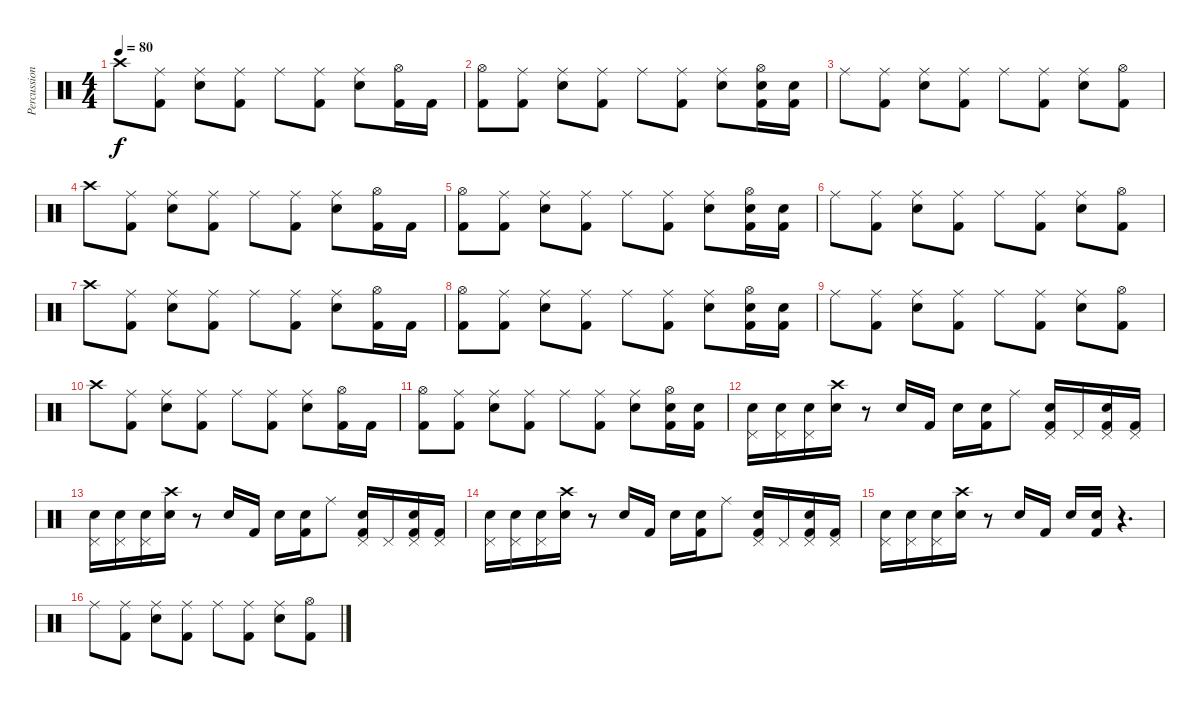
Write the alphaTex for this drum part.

\track ("Percussion" "Percussion") {instrument percussion}
\staff {score}
\articulation defaults
\ts (4 4)
\tempo 80
\clef neutral
\ks c "Crash high (hit)".8{dy f}
("Ride (middle)" "Kick (hit) 2").8 ("Ride (middle)" "Electric Snare (hit)").8 ("Ride (middle)" "Kick (hit) 2").8 "Ride (middle)".8 ("Ride (middle)" "Kick (hit) 2").8 ("Ride (middle)" "Electric Snare (hit)").8 ("Hi-Hat (open)" "Kick (hit) 2").16 "Kick (hit) 2".16 |
("Hi-Hat (open)" "Kick (hit) 2").8 ("Ride (middle)" "Kick (hit) 2").8 ("Ride (middle)" "Electric Snare (hit)").8 ("Ride (middle)" "Kick (hit) 2").8 "Ride (middle)".8 ("Ride (middle)" "Kick (hit) 2").8 ("Ride (middle)" "Electric Snare (hit)").8 ("Hi-Hat (open)" "Electric Snare (hit)" "Kick (hit) 2").16 ("Electric Snare (hit)" "Kick (hit) 2").16 |
"Ride (middle)".8 ("Ride (middle)" "Kick (hit) 2").8 ("Ride (middle)" "Electric Snare (hit)").8 ("Ride (middle)" "Kick (hit) 2").8 "Ride (middle)".8 ("Ride (middle)" "Kick (hit) 2").8 ("Ride (middle)" "Electric Snare (hit)").8 ("Hi-Hat (open)" "Kick (hit) 2").8 |
"Crash high (hit)".8 ("Ride (middle)" "Kick (hit) 2").8 ("Ride (middle)" "Electric Snare (hit)").8 ("Ride (middle)" "Kick (hit) 2").8 "Ride (middle)".8 ("Ride (middle)" "Kick (hit) 2").8 ("Ride (middle)" "Electric Snare (hit)").8 ("Hi-Hat (open)" "Kick (hit) 2").16 "Kick (hit) 2".16 |
("Hi-Hat (open)" "Kick (hit) 2").8 ("Ride (middle)" "Kick (hit) 2").8 ("Ride (middle)" "Electric Snare (hit)").8 ("Ride (middle)" "Kick (hit) 2").8 "Ride (middle)".8 ("Ride (middle)" "Kick (hit) 2").8 ("Ride (middle)" "Electric Snare (hit)").8 ("Hi-Hat (open)" "Electric Snare (hit)" "Kick (hit) 2").16 ("Electric Snare (hit)" "Kick (hit) 2").16 |
"Ride (middle)".8 ("Ride (middle)" "Kick (hit) 2").8 ("Ride (middle)" "Electric Snare (hit)").8 ("Ride (middle)" "Kick (hit) 2").8 "Ride (middle)".8 ("Ride (middle)" "Kick (hit) 2").8 ("Ride (middle)" "Electric Snare (hit)").8 ("Hi-Hat (open)" "Kick (hit) 2").8 |
"Crash high (hit)".8 ("Ride (middle)" "Kick (hit) 2").8 ("Ride (middle)" "Electric Snare (hit)").8 ("Ride (middle)" "Kick (hit) 2").8 "Ride (middle)".8 ("Ride (middle)" "Kick (hit) 2").8 ("Ride (middle)" "Electric Snare (hit)").8 ("Hi-Hat (open)" "Kick (hit) 2").16 "Kick (hit) 2".16 |
("Hi-Hat (open)" "Kick (hit) 2").8 ("Ride (middle)" "Kick (hit) 2").8 ("Ride (middle)" "Electric Snare (hit)").8 ("Ride (middle)" "Kick (hit) 2").8 "Ride (middle)".8 ("Ride (middle)" "Kick (hit) 2").8 ("Ride (middle)" "Electric Snare (hit)").8 ("Hi-Hat (open)" "Electric Snare (hit)" "Kick (hit) 2").16 ("Electric Snare (hit)" "Kick (hit) 2").16 |
"Ride (middle)".8 ("Ride (middle)" "Kick (hit) 2").8 ("Ride (middle)" "Electric Snare (hit)").8 ("Ride (middle)" "Kick (hit) 2").8 "Ride (middle)".8 ("Ride (middle)" "Kick (hit) 2").8 ("Ride (middle)" "Electric Snare (hit)").8 ("Hi-Hat (open)" "Kick (hit) 2").8 |
"Crash high (hit)".8 ("Ride (middle)" "Kick (hit) 2").8 ("Ride (middle)" "Electric Snare (hit)").8 ("Ride (middle)" "Kick (hit) 2").8 "Ride (middle)".8 ("Ride (middle)" "Kick (hit) 2").8 ("Ride (middle)" "Electric Snare (hit)").8 ("Hi-Hat (open)" "Kick (hit) 2").16 "Kick (hit) 2".16 |
("Hi-Hat (open)" "Kick (hit) 2").8 ("Ride (middle)" "Kick (hit) 2").8 ("Ride (middle)" "Electric Snare (hit)").8 ("Ride (middle)" "Kick (hit) 2").8 "Ride (middle)".8 ("Ride (middle)" "Kick (hit) 2").8 ("Ride (middle)" "Electric Snare (hit)").8 ("Hi-Hat (open)" "Electric Snare (hit)" "Kick (hit) 2").16 ("Electric Snare (hit)" "Kick (hit) 2").16 |
("Pedal Hi-Hat (hit)" "Electric Snare (hit)").16 ("Pedal Hi-Hat (hit)" "Electric Snare (hit)").16 ("Pedal Hi-Hat (hit)" "Electric Snare (hit)").16 ("Crash high (hit)" "Electric Snare (hit)").16 r.8 "Electric Snare (hit)".16 "Kick (hit) 2".16 "Electric Snare (hit)".16 ("Electric Snare (hit)" "Kick (hit) 2").16 "Ride (middle)".8 ("Pedal Hi-Hat (hit)" "Electric Snare (hit)" "Kick (hit) 2").16 "Pedal Hi-Hat (hit)".16 ("Pedal Hi-Hat (hit)" "Electric Snare (hit)" "Kick (hit) 2").16 ("Pedal Hi-Hat (hit)" "Kick (hit) 2").16 |
("Pedal Hi-Hat (hit)" "Electric Snare (hit)").16 ("Pedal Hi-Hat (hit)" "Electric Snare (hit)").16 ("Pedal Hi-Hat (hit)" "Electric Snare (hit)").16 ("Crash high (hit)" "Electric Snare (hit)").16 r.8 "Electric Snare (hit)".16 "Kick (hit) 2".16 "Electric Snare (hit)".16 ("Electric Snare (hit)" "Kick (hit) 2").16 "Ride (middle)".8 ("Pedal Hi-Hat (hit)" "Electric Snare (hit)" "Kick (hit) 2").16 "Pedal Hi-Hat (hit)".16 ("Pedal Hi-Hat (hit)" "Electric Snare (hit)" "Kick (hit) 2").16 ("Pedal Hi-Hat (hit)" "Kick (hit) 2").16 |
("Pedal Hi-Hat (hit)" "Electric Snare (hit)").16 ("Pedal Hi-Hat (hit)" "Electric Snare (hit)").16 ("Pedal Hi-Hat (hit)" "Electric Snare (hit)").16 ("Crash high (hit)" "Electric Snare (hit)").16 r.8 "Electric Snare (hit)".16 "Kick (hit) 2".16 "Electric Snare (hit)".16 ("Electric Snare (hit)" "Kick (hit) 2").16 "Ride (middle)".8 ("Pedal Hi-Hat (hit)" "Electric Snare (hit)" "Kick (hit) 2").16 "Pedal Hi-Hat (hit)".16 ("Pedal Hi-Hat (hit)" "Electric Snare (hit)" "Kick (hit) 2").16 ("Pedal Hi-Hat (hit)" "Kick (hit) 2").16 |
("Pedal Hi-Hat (hit)" "Electric Snare (hit)").16 ("Pedal Hi-Hat (hit)" "Electric Snare (hit)").16 ("Pedal Hi-Hat (hit)" "Electric Snare (hit)").16 ("Crash high (hit)" "Electric Snare (hit)").16 r.8 "Electric Snare (hit)".16 "Kick (hit) 2".16 "Electric Snare (hit)".16 ("Electric Snare (hit)" "Kick (hit) 2").16 r.4{d} |
"Ride (middle)".8 ("Ride (middle)" "Kick (hit) 2").8 ("Ride (middle)" "Electric Snare (hit)").8 ("Ride (middle)" "Kick (hit) 2").8 "Ride (middle)".8 ("Ride (middle)" "Kick (hit) 2").8 ("Ride (middle)" "Electric Snare (hit)").8 ("Hi-Hat (open)" "Kick (hit) 2").8
